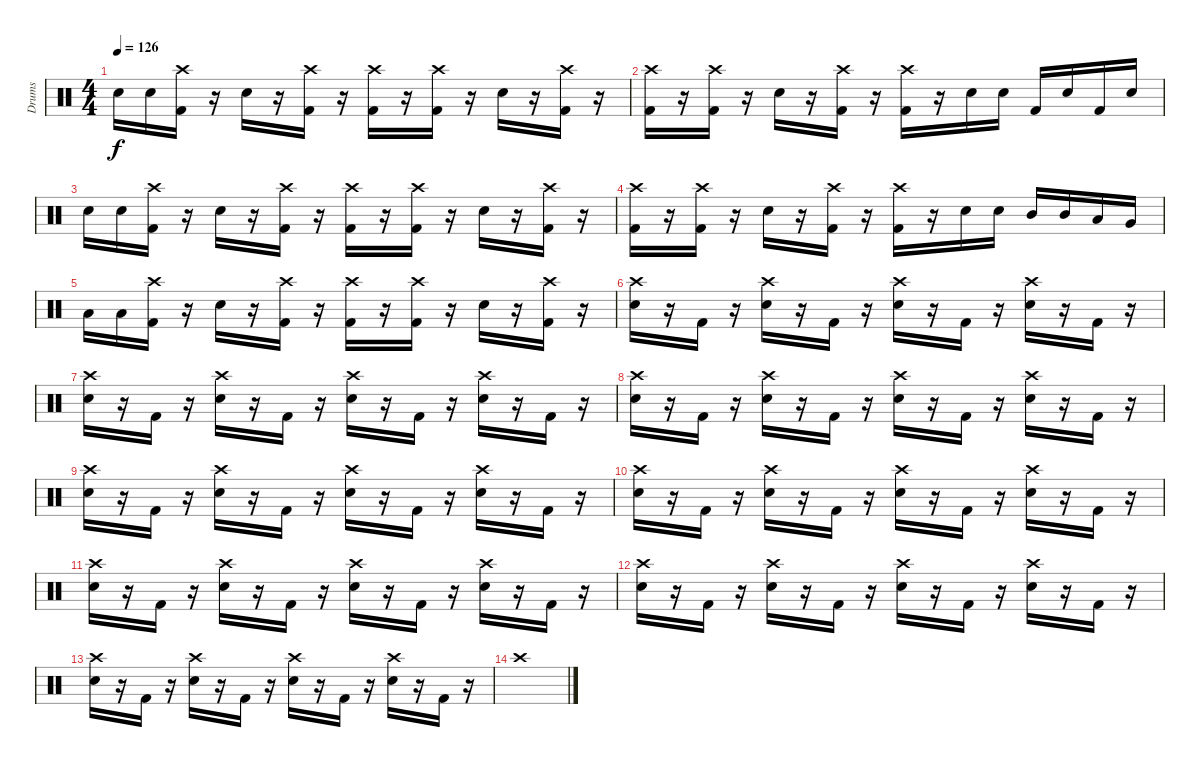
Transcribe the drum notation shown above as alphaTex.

\track ("Drums" "Drums") {instrument percussion}
\staff {score}
\articulation defaults
\ts (4 4)
\tempo 126
\clef neutral
\ks c "Electric Snare (hit)".16{dy f} "Electric Snare (hit)".16
("Crash high (hit)" "Kick (hit) 2").16 r.16 "Electric Snare (hit)".16 r.16 ("Crash high (hit)" "Kick (hit) 2").16 r.16 ("Crash high (hit)" "Kick (hit) 2").16 r.16 ("Crash high (hit)" "Kick (hit) 2").16 r.16 "Electric Snare (hit)".16 r.16 ("Crash high (hit)" "Kick (hit) 2").16 r.16 |
("Crash high (hit)" "Kick (hit) 2").16 r.16 ("Crash high (hit)" "Kick (hit) 2").16 r.16 "Electric Snare (hit)".16 r.16 ("Crash high (hit)" "Kick (hit) 2").16 r.16 ("Crash high (hit)" "Kick (hit) 2").16 r.16 "Electric Snare (hit)".16 "Electric Snare (hit)".16 "Kick (hit) 2".16 "Electric Snare (hit)".16 "Kick (hit) 2".16 "Electric Snare (hit)".16 |
"Electric Snare (hit)".16 "Electric Snare (hit)".16 ("Crash high (hit)" "Kick (hit) 2").16 r.16 "Electric Snare (hit)".16 r.16 ("Crash high (hit)" "Kick (hit) 2").16 r.16 ("Crash high (hit)" "Kick (hit) 2").16 r.16 ("Crash high (hit)" "Kick (hit) 2").16 r.16 "Electric Snare (hit)".16 r.16 ("Crash high (hit)" "Kick (hit) 2").16 r.16 |
("Crash high (hit)" "Kick (hit) 2").16 r.16 ("Crash high (hit)" "Kick (hit) 2").16 r.16 "Electric Snare (hit)".16 r.16 ("Crash high (hit)" "Kick (hit) 2").16 r.16 ("Crash high (hit)" "Kick (hit) 2").16 r.16 "Electric Snare (hit)".16 "Electric Snare (hit)".16 "Mid Tom (hit)".16 "Mid Tom (hit)".16 "Low Tom (hit)".16 "Very Low Tom (hit)".16 |
"Low Floor Tom (hit)".16 "Low Floor Tom (hit)".16 ("Crash high (hit)" "Kick (hit) 2").16 r.16 "Electric Snare (hit)".16 r.16 ("Crash high (hit)" "Kick (hit) 2").16 r.16 ("Crash high (hit)" "Kick (hit) 2").16 r.16 ("Crash high (hit)" "Kick (hit) 2").16 r.16 "Electric Snare (hit)".16 r.16 ("Crash high (hit)" "Kick (hit) 2").16 r.16 |
("Crash high (hit)" "Electric Snare (hit)").16 r.16 "Kick (hit) 2".16 r.16 ("Crash high (hit)" "Electric Snare (hit)").16 r.16 "Kick (hit) 2".16 r.16 ("Crash high (hit)" "Electric Snare (hit)").16 r.16 "Kick (hit) 2".16 r.16 ("Crash high (hit)" "Electric Snare (hit)").16 r.16 "Kick (hit) 2".16 r.16 |
("Crash high (hit)" "Electric Snare (hit)").16 r.16 "Kick (hit) 2".16 r.16 ("Crash high (hit)" "Electric Snare (hit)").16 r.16 "Kick (hit) 2".16 r.16 ("Crash high (hit)" "Electric Snare (hit)").16 r.16 "Kick (hit) 2".16 r.16 ("Crash high (hit)" "Electric Snare (hit)").16 r.16 "Kick (hit) 2".16 r.16 |
("Crash high (hit)" "Electric Snare (hit)").16 r.16 "Kick (hit) 2".16 r.16 ("Crash high (hit)" "Electric Snare (hit)").16 r.16 "Kick (hit) 2".16 r.16 ("Crash high (hit)" "Electric Snare (hit)").16 r.16 "Kick (hit) 2".16 r.16 ("Crash high (hit)" "Electric Snare (hit)").16 r.16 "Kick (hit) 2".16 r.16 |
("Crash high (hit)" "Electric Snare (hit)").16 r.16 "Kick (hit) 2".16 r.16 ("Crash high (hit)" "Electric Snare (hit)").16 r.16 "Kick (hit) 2".16 r.16 ("Crash high (hit)" "Electric Snare (hit)").16 r.16 "Kick (hit) 2".16 r.16 ("Crash high (hit)" "Electric Snare (hit)").16 r.16 "Kick (hit) 2".16 r.16 |
("Crash high (hit)" "Electric Snare (hit)").16 r.16 "Kick (hit) 2".16 r.16 ("Crash high (hit)" "Electric Snare (hit)").16 r.16 "Kick (hit) 2".16 r.16 ("Crash high (hit)" "Electric Snare (hit)").16 r.16 "Kick (hit) 2".16 r.16 ("Crash high (hit)" "Electric Snare (hit)").16 r.16 "Kick (hit) 2".16 r.16 |
("Crash high (hit)" "Electric Snare (hit)").16 r.16 "Kick (hit) 2".16 r.16 ("Crash high (hit)" "Electric Snare (hit)").16 r.16 "Kick (hit) 2".16 r.16 ("Crash high (hit)" "Electric Snare (hit)").16 r.16 "Kick (hit) 2".16 r.16 ("Crash high (hit)" "Electric Snare (hit)").16 r.16 "Kick (hit) 2".16 r.16 |
("Crash high (hit)" "Electric Snare (hit)").16 r.16 "Kick (hit) 2".16 r.16 ("Crash high (hit)" "Electric Snare (hit)").16 r.16 "Kick (hit) 2".16 r.16 ("Crash high (hit)" "Electric Snare (hit)").16 r.16 "Kick (hit) 2".16 r.16 ("Crash high (hit)" "Electric Snare (hit)").16 r.16 "Kick (hit) 2".16 r.16 |
("Crash high (hit)" "Electric Snare (hit)").16 r.16 "Kick (hit) 2".16 r.16 ("Crash high (hit)" "Electric Snare (hit)").16 r.16 "Kick (hit) 2".16 r.16 ("Crash high (hit)" "Electric Snare (hit)").16 r.16 "Kick (hit) 2".16 r.16 ("Crash high (hit)" "Electric Snare (hit)").16 r.16 "Kick (hit) 2".16 r.16 |
"Crash high (hit)".1
